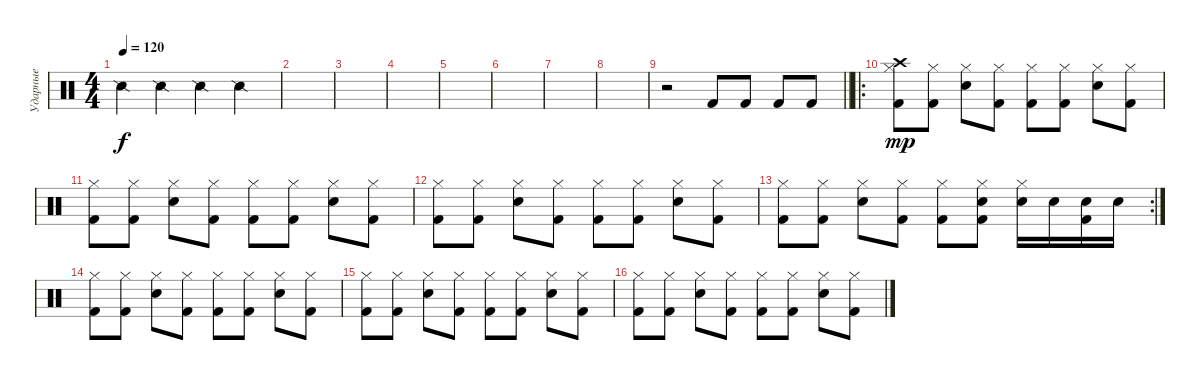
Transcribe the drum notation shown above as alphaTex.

\track ("Ударные" "Ударные") {instrument percussion}
\staff {score}
\articulation defaults
\ts (4 4)
\tempo 120
\clef neutral
\ks c "Snare (side stick) 2".4{dy f} "Snare (side stick) 2".4 "Snare (side stick) 2".4 "Snare (side stick) 2".4
|
|
|
|
|
|
|
|
\barLineRight lightlight
r.2 "Kick (hit) 2".8 "Kick (hit) 2".8 "Kick (hit) 2".8 "Kick (hit) 2".8 |
\ro
("Kick (hit) 2" "Hi-Hat (closed)" "Crash high (hit)").8{dy mp} ("Kick (hit) 2" "Hi-Hat (closed)").8 ("Snare (hit) 2" "Hi-Hat (closed)").8 ("Kick (hit) 2" "Hi-Hat (closed)").8 ("Kick (hit) 2" "Hi-Hat (closed)").8 ("Kick (hit) 2" "Hi-Hat (closed)").8 ("Snare (hit) 2" "Hi-Hat (closed)").8 ("Kick (hit) 2" "Hi-Hat (closed)").8 |
("Kick (hit) 2" "Hi-Hat (closed)").8 ("Kick (hit) 2" "Hi-Hat (closed)").8 ("Snare (hit) 2" "Hi-Hat (closed)").8 ("Kick (hit) 2" "Hi-Hat (closed)").8 ("Kick (hit) 2" "Hi-Hat (closed)").8 ("Kick (hit) 2" "Hi-Hat (closed)").8 ("Snare (hit) 2" "Hi-Hat (closed)").8 ("Kick (hit) 2" "Hi-Hat (closed)").8 |
("Kick (hit) 2" "Hi-Hat (closed)").8 ("Kick (hit) 2" "Hi-Hat (closed)").8 ("Snare (hit) 2" "Hi-Hat (closed)").8 ("Kick (hit) 2" "Hi-Hat (closed)").8 ("Kick (hit) 2" "Hi-Hat (closed)").8 ("Kick (hit) 2" "Hi-Hat (closed)").8 ("Snare (hit) 2" "Hi-Hat (closed)").8 ("Kick (hit) 2" "Hi-Hat (closed)").8 |
\rc 2
("Kick (hit) 2" "Hi-Hat (closed)").8 ("Kick (hit) 2" "Hi-Hat (closed)").8 ("Snare (hit) 2" "Hi-Hat (closed)").8 ("Kick (hit) 2" "Hi-Hat (closed)").8 ("Kick (hit) 2" "Hi-Hat (closed)").8 ("Kick (hit) 2" "Snare (hit) 2" "Hi-Hat (closed)").8 ("Snare (hit) 2" "Hi-Hat (closed)").16 "Snare (hit) 2".16 ("Kick (hit) 2" "Snare (hit) 2").16 "Snare (hit) 2".16 |
("Kick (hit) 2" "Hi-Hat (closed)").8 ("Kick (hit) 2" "Hi-Hat (closed)").8 ("Snare (hit) 2" "Hi-Hat (closed)").8 ("Kick (hit) 2" "Hi-Hat (closed)").8 ("Kick (hit) 2" "Hi-Hat (closed)").8 ("Kick (hit) 2" "Hi-Hat (closed)").8 ("Snare (hit) 2" "Hi-Hat (closed)").8 ("Kick (hit) 2" "Hi-Hat (closed)").8 |
("Kick (hit) 2" "Hi-Hat (closed)").8 ("Kick (hit) 2" "Hi-Hat (closed)").8 ("Snare (hit) 2" "Hi-Hat (closed)").8 ("Kick (hit) 2" "Hi-Hat (closed)").8 ("Kick (hit) 2" "Hi-Hat (closed)").8 ("Kick (hit) 2" "Hi-Hat (closed)").8 ("Snare (hit) 2" "Hi-Hat (closed)").8 ("Kick (hit) 2" "Hi-Hat (closed)").8 |
("Kick (hit) 2" "Hi-Hat (closed)").8 ("Kick (hit) 2" "Hi-Hat (closed)").8 ("Snare (hit) 2" "Hi-Hat (closed)").8 ("Kick (hit) 2" "Hi-Hat (closed)").8 ("Kick (hit) 2" "Hi-Hat (closed)").8 ("Kick (hit) 2" "Hi-Hat (closed)").8 ("Snare (hit) 2" "Hi-Hat (closed)").8 ("Kick (hit) 2" "Hi-Hat (closed)").8
